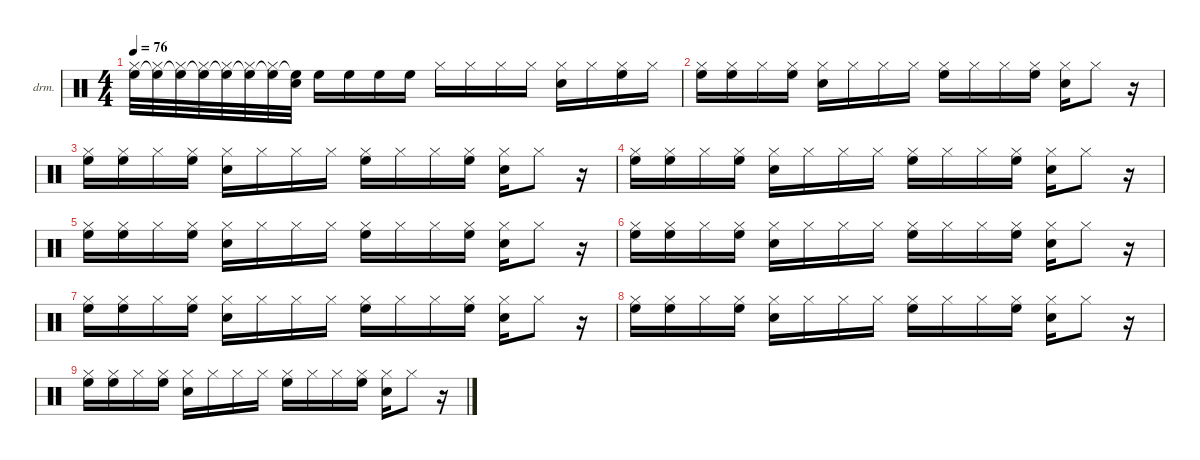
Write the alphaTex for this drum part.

\defaultSystemsLayout 4
\hideDynamics
\bracketExtendMode nobrackets
\firstSystemTrackNameOrientation horizontal
\otherSystemsTrackNameOrientation horizontal
\track ("¹ÄÉù" "drm.") {instrument percussion}
\staff {score}
\articulation defaults
\ts (4 4)
\tempo 76
\clef neutral
\ks c
("Hi-Hat (closed)" "High Floor Tom (hit)").32{dy f} ("Hi-Hat (closed)" "High Floor Tom (hit)"{t}).32 ("Hi-Hat (closed)" "High Floor Tom (hit)"{t}).32 ("Hi-Hat (closed)" "High Floor Tom (hit)"{t}).32 ("Hi-Hat (closed)" "High Floor Tom (hit)"{t}).32 ("Hi-Hat (closed)" "High Floor Tom (hit)"{t}).32 ("Hi-Hat (closed)" "High Floor Tom (hit)"{t}).32 ("Snare (hit) 2" "High Floor Tom (hit)"{t}).32 "High Floor Tom (hit)".16 "High Floor Tom (hit)".16 "High Floor Tom (hit)".16 "High Floor Tom (hit)".16 "Hi-Hat (closed)".16 "Hi-Hat (closed)".16 "Hi-Hat (closed)".16 "Hi-Hat (closed)".16 ("Hi-Hat (closed)" "Snare (hit) 2").16 "Hi-Hat (closed)".16 ("Hi-Hat (closed)" "High Floor Tom (hit)").16 "Hi-Hat (closed)".16 |
("Hi-Hat (closed)" "High Floor Tom (hit)").16 ("Hi-Hat (closed)" "High Floor Tom (hit)").16 "Hi-Hat (closed)".16 ("Hi-Hat (closed)" "High Floor Tom (hit)").16 ("Hi-Hat (closed)" "Snare (hit) 2").16 "Hi-Hat (closed)".16 "Hi-Hat (closed)".16 "Hi-Hat (closed)".16 ("Hi-Hat (closed)" "High Floor Tom (hit)").16 "Hi-Hat (closed)".16 "Hi-Hat (closed)".16 ("Hi-Hat (closed)" "High Floor Tom (hit)").16 ("Hi-Hat (closed)" "Snare (hit) 2").16 "Hi-Hat (closed)".8 r.16 |
("Hi-Hat (closed)" "High Floor Tom (hit)").16 ("Hi-Hat (closed)" "High Floor Tom (hit)").16 "Hi-Hat (closed)".16 ("Hi-Hat (closed)" "High Floor Tom (hit)").16 ("Hi-Hat (closed)" "Snare (hit) 2").16 "Hi-Hat (closed)".16 "Hi-Hat (closed)".16 "Hi-Hat (closed)".16 ("Hi-Hat (closed)" "High Floor Tom (hit)").16 "Hi-Hat (closed)".16 "Hi-Hat (closed)".16 ("Hi-Hat (closed)" "High Floor Tom (hit)").16 ("Hi-Hat (closed)" "Snare (hit) 2").16 "Hi-Hat (closed)".8 r.16 |
("Hi-Hat (closed)" "High Floor Tom (hit)").16 ("Hi-Hat (closed)" "High Floor Tom (hit)").16 "Hi-Hat (closed)".16 ("Hi-Hat (closed)" "High Floor Tom (hit)").16 ("Hi-Hat (closed)" "Snare (hit) 2").16 "Hi-Hat (closed)".16 "Hi-Hat (closed)".16 "Hi-Hat (closed)".16 ("Hi-Hat (closed)" "High Floor Tom (hit)").16 "Hi-Hat (closed)".16 "Hi-Hat (closed)".16 ("Hi-Hat (closed)" "High Floor Tom (hit)").16 ("Hi-Hat (closed)" "Snare (hit) 2").16 "Hi-Hat (closed)".8 r.16 |
("Hi-Hat (closed)" "High Floor Tom (hit)").16 ("Hi-Hat (closed)" "High Floor Tom (hit)").16 "Hi-Hat (closed)".16 ("Hi-Hat (closed)" "High Floor Tom (hit)").16 ("Hi-Hat (closed)" "Snare (hit) 2").16 "Hi-Hat (closed)".16 "Hi-Hat (closed)".16 "Hi-Hat (closed)".16 ("Hi-Hat (closed)" "High Floor Tom (hit)").16 "Hi-Hat (closed)".16 "Hi-Hat (closed)".16 ("Hi-Hat (closed)" "High Floor Tom (hit)").16 ("Hi-Hat (closed)" "Snare (hit) 2").16 "Hi-Hat (closed)".8 r.16 |
("Hi-Hat (closed)" "High Floor Tom (hit)").16 ("Hi-Hat (closed)" "High Floor Tom (hit)").16 "Hi-Hat (closed)".16 ("Hi-Hat (closed)" "High Floor Tom (hit)").16 ("Hi-Hat (closed)" "Snare (hit) 2").16 "Hi-Hat (closed)".16 "Hi-Hat (closed)".16 "Hi-Hat (closed)".16 ("Hi-Hat (closed)" "High Floor Tom (hit)").16 "Hi-Hat (closed)".16 "Hi-Hat (closed)".16 ("Hi-Hat (closed)" "High Floor Tom (hit)").16 ("Hi-Hat (closed)" "Snare (hit) 2").16 "Hi-Hat (closed)".8 r.16 |
("Hi-Hat (closed)" "High Floor Tom (hit)").16 ("Hi-Hat (closed)" "High Floor Tom (hit)").16 "Hi-Hat (closed)".16 ("Hi-Hat (closed)" "High Floor Tom (hit)").16 ("Hi-Hat (closed)" "Snare (hit) 2").16 "Hi-Hat (closed)".16 "Hi-Hat (closed)".16 "Hi-Hat (closed)".16 ("Hi-Hat (closed)" "High Floor Tom (hit)").16 "Hi-Hat (closed)".16 "Hi-Hat (closed)".16 ("Hi-Hat (closed)" "High Floor Tom (hit)").16 ("Hi-Hat (closed)" "Snare (hit) 2").16 "Hi-Hat (closed)".8 r.16 |
("Hi-Hat (closed)" "High Floor Tom (hit)").16 ("Hi-Hat (closed)" "High Floor Tom (hit)").16 "Hi-Hat (closed)".16 ("Hi-Hat (closed)" "High Floor Tom (hit)").16 ("Hi-Hat (closed)" "Snare (hit) 2").16 "Hi-Hat (closed)".16 "Hi-Hat (closed)".16 "Hi-Hat (closed)".16 ("Hi-Hat (closed)" "High Floor Tom (hit)").16 "Hi-Hat (closed)".16 "Hi-Hat (closed)".16 ("Hi-Hat (closed)" "High Floor Tom (hit)").16 ("Hi-Hat (closed)" "Snare (hit) 2").16 "Hi-Hat (closed)".8 r.16 |
("Hi-Hat (closed)" "High Floor Tom (hit)").16 ("Hi-Hat (closed)" "High Floor Tom (hit)").16 "Hi-Hat (closed)".16 ("Hi-Hat (closed)" "High Floor Tom (hit)").16 ("Hi-Hat (closed)" "Snare (hit) 2").16 "Hi-Hat (closed)".16 "Hi-Hat (closed)".16 "Hi-Hat (closed)".16 ("Hi-Hat (closed)" "High Floor Tom (hit)").16 "Hi-Hat (closed)".16 "Hi-Hat (closed)".16 ("Hi-Hat (closed)" "High Floor Tom (hit)").16 ("Hi-Hat (closed)" "Snare (hit) 2").16 "Hi-Hat (closed)".8 r.16
